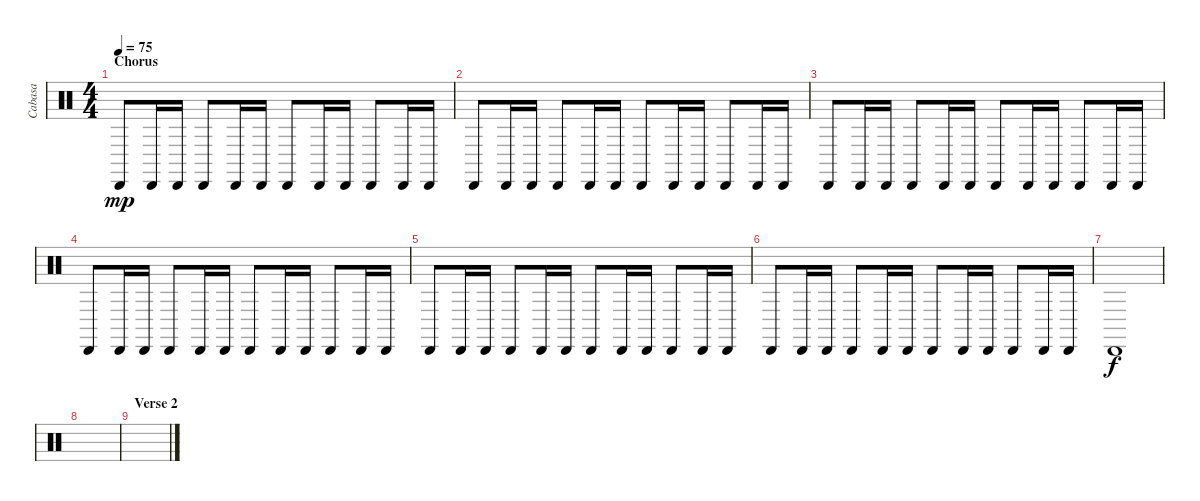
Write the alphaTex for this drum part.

\track ("Cabasa" "Cabasa") {instrument percussion}
\staff {score}
\articulation defaults
\ts (4 4)
\section ("" "Chorus")
\tempo 75
\clef neutral
\ks c "Cabasa (hit)".8{dy mp} "Cabasa (hit)".16 "Cabasa (hit)".16 "Cabasa (hit)".8 "Cabasa (hit)".16 "Cabasa (hit)".16 "Cabasa (hit)".8 "Cabasa (hit)".16 "Cabasa (hit)".16 "Cabasa (hit)".8 "Cabasa (hit)".16 "Cabasa (hit)".16
|
"Cabasa (hit)".8 "Cabasa (hit)".16 "Cabasa (hit)".16 "Cabasa (hit)".8 "Cabasa (hit)".16 "Cabasa (hit)".16 "Cabasa (hit)".8 "Cabasa (hit)".16 "Cabasa (hit)".16 "Cabasa (hit)".8 "Cabasa (hit)".16 "Cabasa (hit)".16 |
"Cabasa (hit)".8 "Cabasa (hit)".16 "Cabasa (hit)".16 "Cabasa (hit)".8 "Cabasa (hit)".16 "Cabasa (hit)".16 "Cabasa (hit)".8 "Cabasa (hit)".16 "Cabasa (hit)".16 "Cabasa (hit)".8 "Cabasa (hit)".16 "Cabasa (hit)".16 |
"Cabasa (hit)".8 "Cabasa (hit)".16 "Cabasa (hit)".16 "Cabasa (hit)".8 "Cabasa (hit)".16 "Cabasa (hit)".16 "Cabasa (hit)".8 "Cabasa (hit)".16 "Cabasa (hit)".16 "Cabasa (hit)".8 "Cabasa (hit)".16 "Cabasa (hit)".16 |
"Cabasa (hit)".8 "Cabasa (hit)".16 "Cabasa (hit)".16 "Cabasa (hit)".8 "Cabasa (hit)".16 "Cabasa (hit)".16 "Cabasa (hit)".8 "Cabasa (hit)".16 "Cabasa (hit)".16 "Cabasa (hit)".8 "Cabasa (hit)".16 "Cabasa (hit)".16 |
"Cabasa (hit)".8 "Cabasa (hit)".16 "Cabasa (hit)".16 "Cabasa (hit)".8 "Cabasa (hit)".16 "Cabasa (hit)".16 "Cabasa (hit)".8 "Cabasa (hit)".16 "Cabasa (hit)".16 "Cabasa (hit)".8 "Cabasa (hit)".16 "Cabasa (hit)".16 |
"Cabasa (hit)".1{dy f} |
|
\section ("" "Verse 2")
